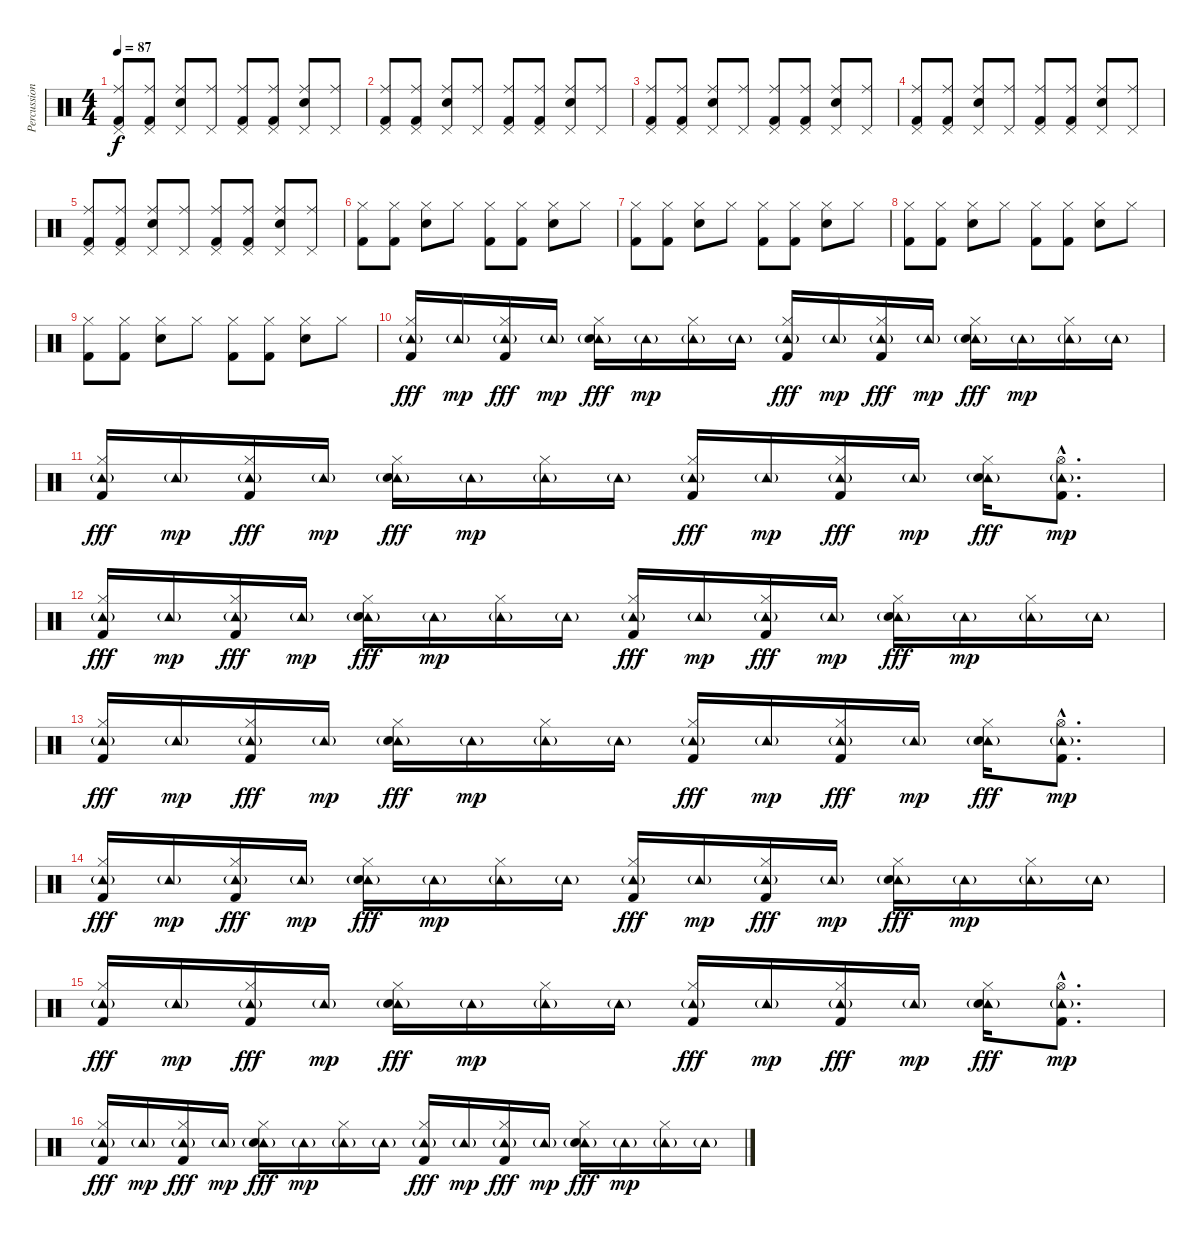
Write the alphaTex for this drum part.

\track ("Percussion" "Percussion") {instrument percussion}
\staff {score}
\articulation defaults
\ts (4 4)
\tempo 87
\clef neutral
\ks c
("Pedal Hi-Hat (hit)" "Ride (middle)" "Kick (hit) 2").8{dy f} ("Pedal Hi-Hat (hit)" "Ride (middle)" "Kick (hit) 2").8 ("Pedal Hi-Hat (hit)" "Ride (middle)" "Electric Snare (hit)").8 ("Pedal Hi-Hat (hit)" "Ride (middle)").8 ("Pedal Hi-Hat (hit)" "Ride (middle)" "Kick (hit) 2").8 ("Pedal Hi-Hat (hit)" "Ride (middle)" "Kick (hit) 2").8 ("Pedal Hi-Hat (hit)" "Ride (middle)" "Electric Snare (hit)").8 ("Pedal Hi-Hat (hit)" "Ride (middle)").8 |
("Pedal Hi-Hat (hit)" "Ride (middle)" "Kick (hit) 2").8 ("Pedal Hi-Hat (hit)" "Ride (middle)" "Kick (hit) 2").8 ("Pedal Hi-Hat (hit)" "Ride (middle)" "Electric Snare (hit)").8 ("Pedal Hi-Hat (hit)" "Ride (middle)").8 ("Pedal Hi-Hat (hit)" "Ride (middle)" "Kick (hit) 2").8 ("Pedal Hi-Hat (hit)" "Ride (middle)" "Kick (hit) 2").8 ("Pedal Hi-Hat (hit)" "Ride (middle)" "Electric Snare (hit)").8 ("Pedal Hi-Hat (hit)" "Ride (middle)").8 |
("Pedal Hi-Hat (hit)" "Ride (middle)" "Kick (hit) 2").8 ("Pedal Hi-Hat (hit)" "Ride (middle)" "Kick (hit) 2").8 ("Pedal Hi-Hat (hit)" "Ride (middle)" "Electric Snare (hit)").8 ("Pedal Hi-Hat (hit)" "Ride (middle)").8 ("Pedal Hi-Hat (hit)" "Ride (middle)" "Kick (hit) 2").8 ("Pedal Hi-Hat (hit)" "Ride (middle)" "Kick (hit) 2").8 ("Pedal Hi-Hat (hit)" "Ride (middle)" "Electric Snare (hit)").8 ("Pedal Hi-Hat (hit)" "Ride (middle)").8 |
("Pedal Hi-Hat (hit)" "Ride (middle)" "Kick (hit) 2").8 ("Pedal Hi-Hat (hit)" "Ride (middle)" "Kick (hit) 2").8 ("Pedal Hi-Hat (hit)" "Ride (middle)" "Electric Snare (hit)").8 ("Pedal Hi-Hat (hit)" "Ride (middle)").8 ("Pedal Hi-Hat (hit)" "Ride (middle)" "Kick (hit) 2").8 ("Pedal Hi-Hat (hit)" "Ride (middle)" "Kick (hit) 2").8 ("Pedal Hi-Hat (hit)" "Ride (middle)" "Electric Snare (hit)").8 ("Pedal Hi-Hat (hit)" "Ride (middle)").8 |
("Pedal Hi-Hat (hit)" "Ride (middle)" "Kick (hit) 2").8 ("Pedal Hi-Hat (hit)" "Ride (middle)" "Kick (hit) 2").8 ("Pedal Hi-Hat (hit)" "Ride (middle)" "Electric Snare (hit)").8 ("Pedal Hi-Hat (hit)" "Ride (middle)").8 ("Pedal Hi-Hat (hit)" "Ride (middle)" "Kick (hit) 2").8 ("Pedal Hi-Hat (hit)" "Ride (middle)" "Kick (hit) 2").8 ("Pedal Hi-Hat (hit)" "Ride (middle)" "Electric Snare (hit)").8 ("Pedal Hi-Hat (hit)" "Ride (middle)").8 |
("Hi-Hat (closed)" "Kick (hit) 2").8 ("Hi-Hat (closed)" "Kick (hit) 2").8 ("Hi-Hat (closed)" "Electric Snare (hit)").8 "Hi-Hat (closed)".8 ("Hi-Hat (closed)" "Kick (hit) 2").8 ("Hi-Hat (closed)" "Kick (hit) 2").8 ("Hi-Hat (closed)" "Electric Snare (hit)").8 "Hi-Hat (closed)".8 |
("Hi-Hat (closed)" "Kick (hit) 2").8 ("Hi-Hat (closed)" "Kick (hit) 2").8 ("Hi-Hat (closed)" "Electric Snare (hit)").8 "Hi-Hat (closed)".8 ("Hi-Hat (closed)" "Kick (hit) 2").8 ("Hi-Hat (closed)" "Kick (hit) 2").8 ("Hi-Hat (closed)" "Electric Snare (hit)").8 "Hi-Hat (closed)".8 |
("Hi-Hat (closed)" "Kick (hit) 2").8 ("Hi-Hat (closed)" "Kick (hit) 2").8 ("Hi-Hat (closed)" "Electric Snare (hit)").8 "Hi-Hat (closed)".8 ("Hi-Hat (closed)" "Kick (hit) 2").8 ("Hi-Hat (closed)" "Kick (hit) 2").8 ("Hi-Hat (closed)" "Electric Snare (hit)").8 "Hi-Hat (closed)".8 |
("Hi-Hat (closed)" "Kick (hit) 2").8 ("Hi-Hat (closed)" "Kick (hit) 2").8 ("Hi-Hat (closed)" "Electric Snare (hit)").8 "Hi-Hat (closed)".8 ("Hi-Hat (closed)" "Kick (hit) 2").8 ("Hi-Hat (closed)" "Kick (hit) 2").8 ("Hi-Hat (closed)" "Electric Snare (hit)").8 "Hi-Hat (closed)".8 |
("Hi-Hat (closed)" "Tambourine (hit)"{g} "Kick (hit) 2").16{dy fff} "Tambourine (hit)"{g}.16{dy mp} ("Hi-Hat (closed)" "Tambourine (hit)"{g} "Kick (hit) 2").16{dy fff} "Tambourine (hit)"{g}.16{dy mp} ("Hi-Hat (closed)" "Tambourine (hit)"{g} "Electric Snare (hit)").16{dy fff} "Tambourine (hit)"{g}.16{dy mp} ("Hi-Hat (closed)" "Tambourine (hit)"{g}).16 "Tambourine (hit)"{g}.16 ("Hi-Hat (closed)" "Tambourine (hit)"{g} "Kick (hit) 2").16{dy fff} "Tambourine (hit)"{g}.16{dy mp} ("Hi-Hat (closed)" "Tambourine (hit)"{g} "Kick (hit) 2").16{dy fff} "Tambourine (hit)"{g}.16{dy mp} ("Hi-Hat (closed)" "Tambourine (hit)"{g} "Electric Snare (hit)").16{dy fff} "Tambourine (hit)"{g}.16{dy mp} ("Hi-Hat (closed)" "Tambourine (hit)"{g}).16 "Tambourine (hit)"{g}.16 |
("Hi-Hat (closed)" "Tambourine (hit)"{g} "Kick (hit) 2").16{dy fff} "Tambourine (hit)"{g}.16{dy mp} ("Hi-Hat (closed)" "Tambourine (hit)"{g} "Kick (hit) 2").16{dy fff} "Tambourine (hit)"{g}.16{dy mp} ("Hi-Hat (closed)" "Tambourine (hit)"{g} "Electric Snare (hit)").16{dy fff} "Tambourine (hit)"{g}.16{dy mp} ("Hi-Hat (closed)" "Tambourine (hit)"{g}).16 "Tambourine (hit)"{g}.16 ("Hi-Hat (closed)" "Tambourine (hit)"{g} "Kick (hit) 2").16{dy fff} "Tambourine (hit)"{g}.16{dy mp} ("Hi-Hat (closed)" "Tambourine (hit)"{g} "Kick (hit) 2").16{dy fff} "Tambourine (hit)"{g}.16{dy mp} ("Hi-Hat (closed)" "Tambourine (hit)"{g} "Electric Snare (hit)").16{dy fff} ("Hi-Hat (open)"{hac} "Tambourine (hit)"{g hac} "Kick (hit) 2"{hac}).8{d dy mp} |
("Hi-Hat (closed)" "Tambourine (hit)"{g} "Kick (hit) 2").16{dy fff} "Tambourine (hit)"{g}.16{dy mp} ("Hi-Hat (closed)" "Tambourine (hit)"{g} "Kick (hit) 2").16{dy fff} "Tambourine (hit)"{g}.16{dy mp} ("Hi-Hat (closed)" "Tambourine (hit)"{g} "Electric Snare (hit)").16{dy fff} "Tambourine (hit)"{g}.16{dy mp} ("Hi-Hat (closed)" "Tambourine (hit)"{g}).16 "Tambourine (hit)"{g}.16 ("Hi-Hat (closed)" "Tambourine (hit)"{g} "Kick (hit) 2").16{dy fff} "Tambourine (hit)"{g}.16{dy mp} ("Hi-Hat (closed)" "Tambourine (hit)"{g} "Kick (hit) 2").16{dy fff} "Tambourine (hit)"{g}.16{dy mp} ("Hi-Hat (closed)" "Tambourine (hit)"{g} "Electric Snare (hit)").16{dy fff} "Tambourine (hit)"{g}.16{dy mp} ("Hi-Hat (closed)" "Tambourine (hit)"{g}).16 "Tambourine (hit)"{g}.16 |
("Hi-Hat (closed)" "Tambourine (hit)"{g} "Kick (hit) 2").16{dy fff} "Tambourine (hit)"{g}.16{dy mp} ("Hi-Hat (closed)" "Tambourine (hit)"{g} "Kick (hit) 2").16{dy fff} "Tambourine (hit)"{g}.16{dy mp} ("Hi-Hat (closed)" "Tambourine (hit)"{g} "Electric Snare (hit)").16{dy fff} "Tambourine (hit)"{g}.16{dy mp} ("Hi-Hat (closed)" "Tambourine (hit)"{g}).16 "Tambourine (hit)"{g}.16 ("Hi-Hat (closed)" "Tambourine (hit)"{g} "Kick (hit) 2").16{dy fff} "Tambourine (hit)"{g}.16{dy mp} ("Hi-Hat (closed)" "Tambourine (hit)"{g} "Kick (hit) 2").16{dy fff} "Tambourine (hit)"{g}.16{dy mp} ("Hi-Hat (closed)" "Tambourine (hit)"{g} "Electric Snare (hit)").16{dy fff} ("Hi-Hat (open)"{hac} "Tambourine (hit)"{g hac} "Kick (hit) 2"{hac}).8{d dy mp} |
("Hi-Hat (closed)" "Tambourine (hit)"{g} "Kick (hit) 2").16{dy fff} "Tambourine (hit)"{g}.16{dy mp} ("Hi-Hat (closed)" "Tambourine (hit)"{g} "Kick (hit) 2").16{dy fff} "Tambourine (hit)"{g}.16{dy mp} ("Hi-Hat (closed)" "Tambourine (hit)"{g} "Electric Snare (hit)").16{dy fff} "Tambourine (hit)"{g}.16{dy mp} ("Hi-Hat (closed)" "Tambourine (hit)"{g}).16 "Tambourine (hit)"{g}.16 ("Hi-Hat (closed)" "Tambourine (hit)"{g} "Kick (hit) 2").16{dy fff} "Tambourine (hit)"{g}.16{dy mp} ("Hi-Hat (closed)" "Tambourine (hit)"{g} "Kick (hit) 2").16{dy fff} "Tambourine (hit)"{g}.16{dy mp} ("Hi-Hat (closed)" "Tambourine (hit)"{g} "Electric Snare (hit)").16{dy fff} "Tambourine (hit)"{g}.16{dy mp} ("Hi-Hat (closed)" "Tambourine (hit)"{g}).16 "Tambourine (hit)"{g}.16 |
("Hi-Hat (closed)" "Tambourine (hit)"{g} "Kick (hit) 2").16{dy fff} "Tambourine (hit)"{g}.16{dy mp} ("Hi-Hat (closed)" "Tambourine (hit)"{g} "Kick (hit) 2").16{dy fff} "Tambourine (hit)"{g}.16{dy mp} ("Hi-Hat (closed)" "Tambourine (hit)"{g} "Electric Snare (hit)").16{dy fff} "Tambourine (hit)"{g}.16{dy mp} ("Hi-Hat (closed)" "Tambourine (hit)"{g}).16 "Tambourine (hit)"{g}.16 ("Hi-Hat (closed)" "Tambourine (hit)"{g} "Kick (hit) 2").16{dy fff} "Tambourine (hit)"{g}.16{dy mp} ("Hi-Hat (closed)" "Tambourine (hit)"{g} "Kick (hit) 2").16{dy fff} "Tambourine (hit)"{g}.16{dy mp} ("Hi-Hat (closed)" "Tambourine (hit)"{g} "Electric Snare (hit)").16{dy fff} ("Hi-Hat (open)"{hac} "Tambourine (hit)"{g hac} "Kick (hit) 2"{hac}).8{d dy mp} |
("Hi-Hat (closed)" "Tambourine (hit)"{g} "Kick (hit) 2").16{dy fff} "Tambourine (hit)"{g}.16{dy mp} ("Hi-Hat (closed)" "Tambourine (hit)"{g} "Kick (hit) 2").16{dy fff} "Tambourine (hit)"{g}.16{dy mp} ("Hi-Hat (closed)" "Tambourine (hit)"{g} "Electric Snare (hit)").16{dy fff} "Tambourine (hit)"{g}.16{dy mp} ("Hi-Hat (closed)" "Tambourine (hit)"{g}).16 "Tambourine (hit)"{g}.16 ("Hi-Hat (closed)" "Tambourine (hit)"{g} "Kick (hit) 2").16{dy fff} "Tambourine (hit)"{g}.16{dy mp} ("Hi-Hat (closed)" "Tambourine (hit)"{g} "Kick (hit) 2").16{dy fff} "Tambourine (hit)"{g}.16{dy mp} ("Hi-Hat (closed)" "Tambourine (hit)"{g} "Electric Snare (hit)").16{dy fff} "Tambourine (hit)"{g}.16{dy mp} ("Hi-Hat (closed)" "Tambourine (hit)"{g}).16 "Tambourine (hit)"{g}.16
